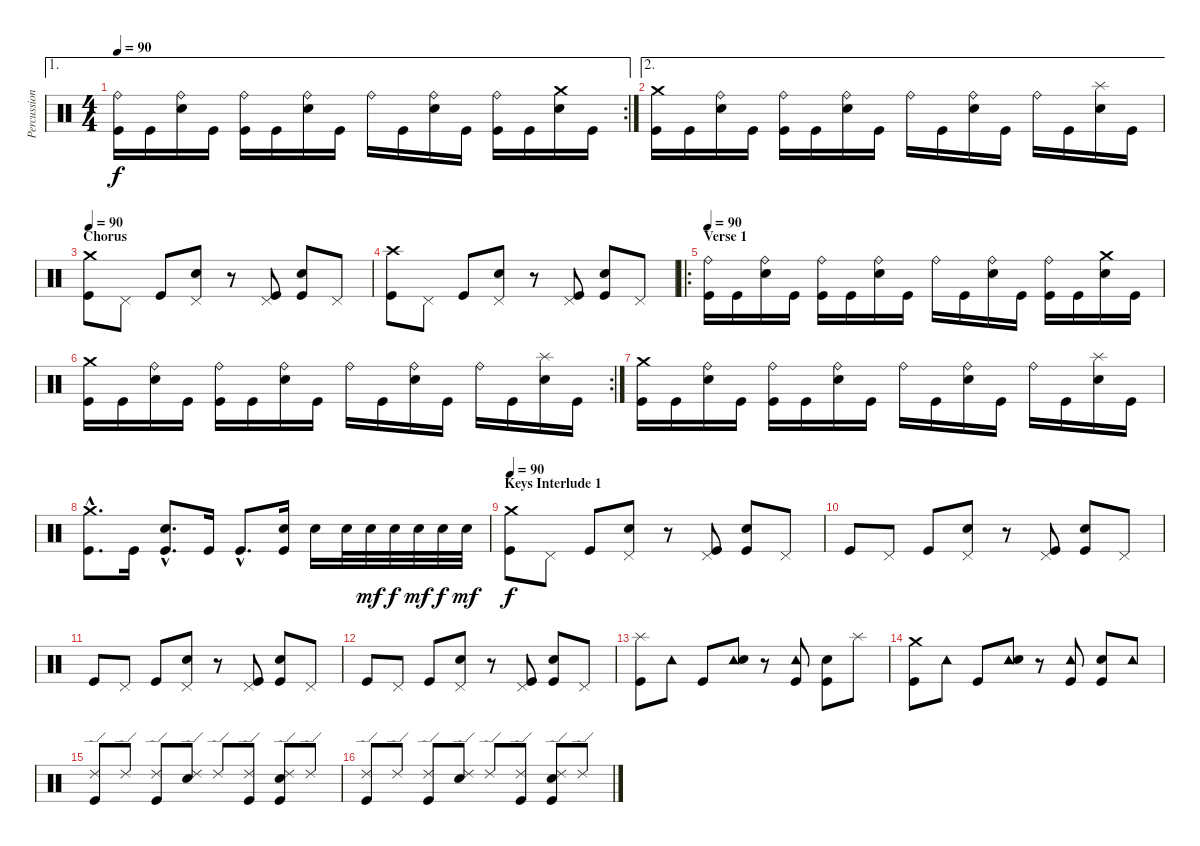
\track ("Percussioni" "Percussion") {instrument percussion}
\staff {score}
\articulation defaults
\ae 1
\rc 2
\ts (4 4)
\tempo 90
\clef neutral
\ks c
("Ride (bell)" "Kick (hit)").16{dy f} "Kick (hit)".16 ("Ride (bell)" "Snare (hit) 2").16 "Kick (hit)".16 ("Ride (bell)" "Kick (hit)").16 "Kick (hit)".16 ("Ride (bell)" "Snare (hit) 2").16 "Kick (hit)".16 "Ride (bell)".16 "Kick (hit)".16 ("Ride (bell)" "Snare (hit) 2").16 "Kick (hit)".16 ("Ride (bell)" "Kick (hit)").16 "Kick (hit)".16 ("Crash medium (hit)" "Snare (hit) 2").16 "Kick (hit)".16 |
\ae 2
("Crash medium (hit)" "Kick (hit)").16 "Kick (hit)".16 ("Ride (bell)" "Snare (hit) 2").16 "Kick (hit)".16 ("Ride (bell)" "Kick (hit)").16 "Kick (hit)".16 ("Ride (bell)" "Snare (hit) 2").16 "Kick (hit)".16 "Ride (bell)".16 "Kick (hit)".16 ("Ride (bell)" "Snare (hit) 2").16 "Kick (hit)".16 "Ride (bell)".16 "Kick (hit)".16 ("Splash (hit)" "Snare (hit) 2").16 "Kick (hit)".16 |
\section ("" "Chorus")
\tempo 90
("Crash medium (hit)" "Kick (hit)").8 "Pedal Hi-Hat (hit)".8 "Kick (hit)".8 ("Pedal Hi-Hat (hit)" "Snare (hit) 2").8 r.8 ("Pedal Hi-Hat (hit)" "Kick (hit)").8 ("Snare (hit) 2" "Kick (hit)").8 "Pedal Hi-Hat (hit)".8 |
("Crash high (hit)" "Kick (hit)").8 "Pedal Hi-Hat (hit)".8 "Kick (hit)".8 ("Pedal Hi-Hat (hit)" "Snare (hit) 2").8 r.8 ("Pedal Hi-Hat (hit)" "Kick (hit)").8 ("Snare (hit) 2" "Kick (hit)").8 "Pedal Hi-Hat (hit)".8 |
\ro
\section ("" "Verse 1")
\tempo 90
("Ride (bell)" "Kick (hit)").16 "Kick (hit)".16 ("Ride (bell)" "Snare (hit) 2").16 "Kick (hit)".16 ("Ride (bell)" "Kick (hit)").16 "Kick (hit)".16 ("Ride (bell)" "Snare (hit) 2").16 "Kick (hit)".16 "Ride (bell)".16 "Kick (hit)".16 ("Ride (bell)" "Snare (hit) 2").16 "Kick (hit)".16 ("Ride (bell)" "Kick (hit)").16 "Kick (hit)".16 ("Crash medium (hit)" "Snare (hit) 2").16 "Kick (hit)".16 |
\rc 2
("Crash medium (hit)" "Kick (hit)").16 "Kick (hit)".16 ("Ride (bell)" "Snare (hit) 2").16 "Kick (hit)".16 ("Ride (bell)" "Kick (hit)").16 "Kick (hit)".16 ("Ride (bell)" "Snare (hit) 2").16 "Kick (hit)".16 "Ride (bell)".16 "Kick (hit)".16 ("Ride (bell)" "Snare (hit) 2").16 "Kick (hit)".16 "Ride (bell)".16 "Kick (hit)".16 ("Splash (hit)" "Snare (hit) 2").16 "Kick (hit)".16 |
("Crash medium (hit)" "Kick (hit)").16 "Kick (hit)".16 ("Ride (bell)" "Snare (hit) 2").16 "Kick (hit)".16 ("Ride (bell)" "Kick (hit)").16 "Kick (hit)".16 ("Ride (bell)" "Snare (hit) 2").16 "Kick (hit)".16 "Ride (bell)".16 "Kick (hit)".16 ("Ride (bell)" "Snare (hit) 2").16 "Kick (hit)".16 "Ride (bell)".16 "Kick (hit)".16 ("Splash (hit)" "Snare (hit) 2").16 "Kick (hit)".16 |
("Crash medium (hit)"{hac} "Kick (hit)"{hac}).8{d} "Kick (hit)".16 ("Snare (hit) 2"{hac} "Kick (hit)"{hac}).8{d} "Kick (hit)".16 "Kick (hit)"{hac}.8{d} ("Snare (hit) 2" "Kick (hit)").16 "Snare (hit) 2".16 "Snare (hit) 2".32 "Snare (hit) 2".32{dy mf} "Snare (hit) 2".32{dy f} "Snare (hit) 2".32{dy mf} "Snare (hit) 2".32{dy f} "Snare (hit) 2".32{dy mf} |
\section ("" "Keys Interlude 1")
\tempo 90
("Crash medium (hit)" "Kick (hit)").8{dy f} "Pedal Hi-Hat (hit)".8 "Kick (hit)".8 ("Pedal Hi-Hat (hit)" "Snare (hit) 2").8 r.8 ("Pedal Hi-Hat (hit)" "Kick (hit)").8 ("Snare (hit) 2" "Kick (hit)").8 "Pedal Hi-Hat (hit)".8 |
"Kick (hit)".8 "Pedal Hi-Hat (hit)".8 "Kick (hit)".8 ("Pedal Hi-Hat (hit)" "Snare (hit) 2").8 r.8 ("Pedal Hi-Hat (hit)" "Kick (hit)").8 ("Snare (hit) 2" "Kick (hit)").8 "Pedal Hi-Hat (hit)".8 |
"Kick (hit)".8 "Pedal Hi-Hat (hit)".8 "Kick (hit)".8 ("Pedal Hi-Hat (hit)" "Snare (hit) 2").8 r.8 ("Pedal Hi-Hat (hit)" "Kick (hit)").8 ("Snare (hit) 2" "Kick (hit)").8 "Pedal Hi-Hat (hit)".8 |
"Kick (hit)".8 "Pedal Hi-Hat (hit)".8 "Kick (hit)".8 ("Pedal Hi-Hat (hit)" "Snare (hit) 2").8 r.8 ("Pedal Hi-Hat (hit)" "Kick (hit)").8 ("Snare (hit) 2" "Kick (hit)").8 "Pedal Hi-Hat (hit)".8 |
("Splash (hit)" "Kick (hit)").8 "Tambourine (hit)".8 "Kick (hit)".8 ("Tambourine (hit)" "Snare (hit) 2").8 r.8 ("Tambourine (hit)" "Kick (hit)").8 ("Snare (hit) 2" "Kick (hit)").8 "Splash (hit)".8 |
("Crash medium (hit)" "Kick (hit)").8 "Tambourine (hit)".8 "Kick (hit)".8 ("Tambourine (hit)" "Snare (hit) 2").8 r.8 ("Tambourine (hit)" "Kick (hit)").8 ("Snare (hit) 2" "Kick (hit)").8 "Tambourine (hit)".8 |
("Ride (edge) 2" "Kick (hit)").8 "Ride (edge) 2".8 ("Ride (edge) 2" "Kick (hit)").8 ("Ride (edge) 2" "Snare (hit) 2").8 "Ride (edge) 2".8 ("Ride (edge) 2" "Kick (hit)").8 ("Ride (edge) 2" "Snare (hit) 2" "Kick (hit)").8 "Ride (edge) 2".8 |
("Ride (edge) 2" "Kick (hit)").8 "Ride (edge) 2".8 ("Ride (edge) 2" "Kick (hit)").8 ("Ride (edge) 2" "Snare (hit) 2").8 "Ride (edge) 2".8 ("Ride (edge) 2" "Kick (hit)").8 ("Ride (edge) 2" "Snare (hit) 2" "Kick (hit)").8 "Ride (edge) 2".8
